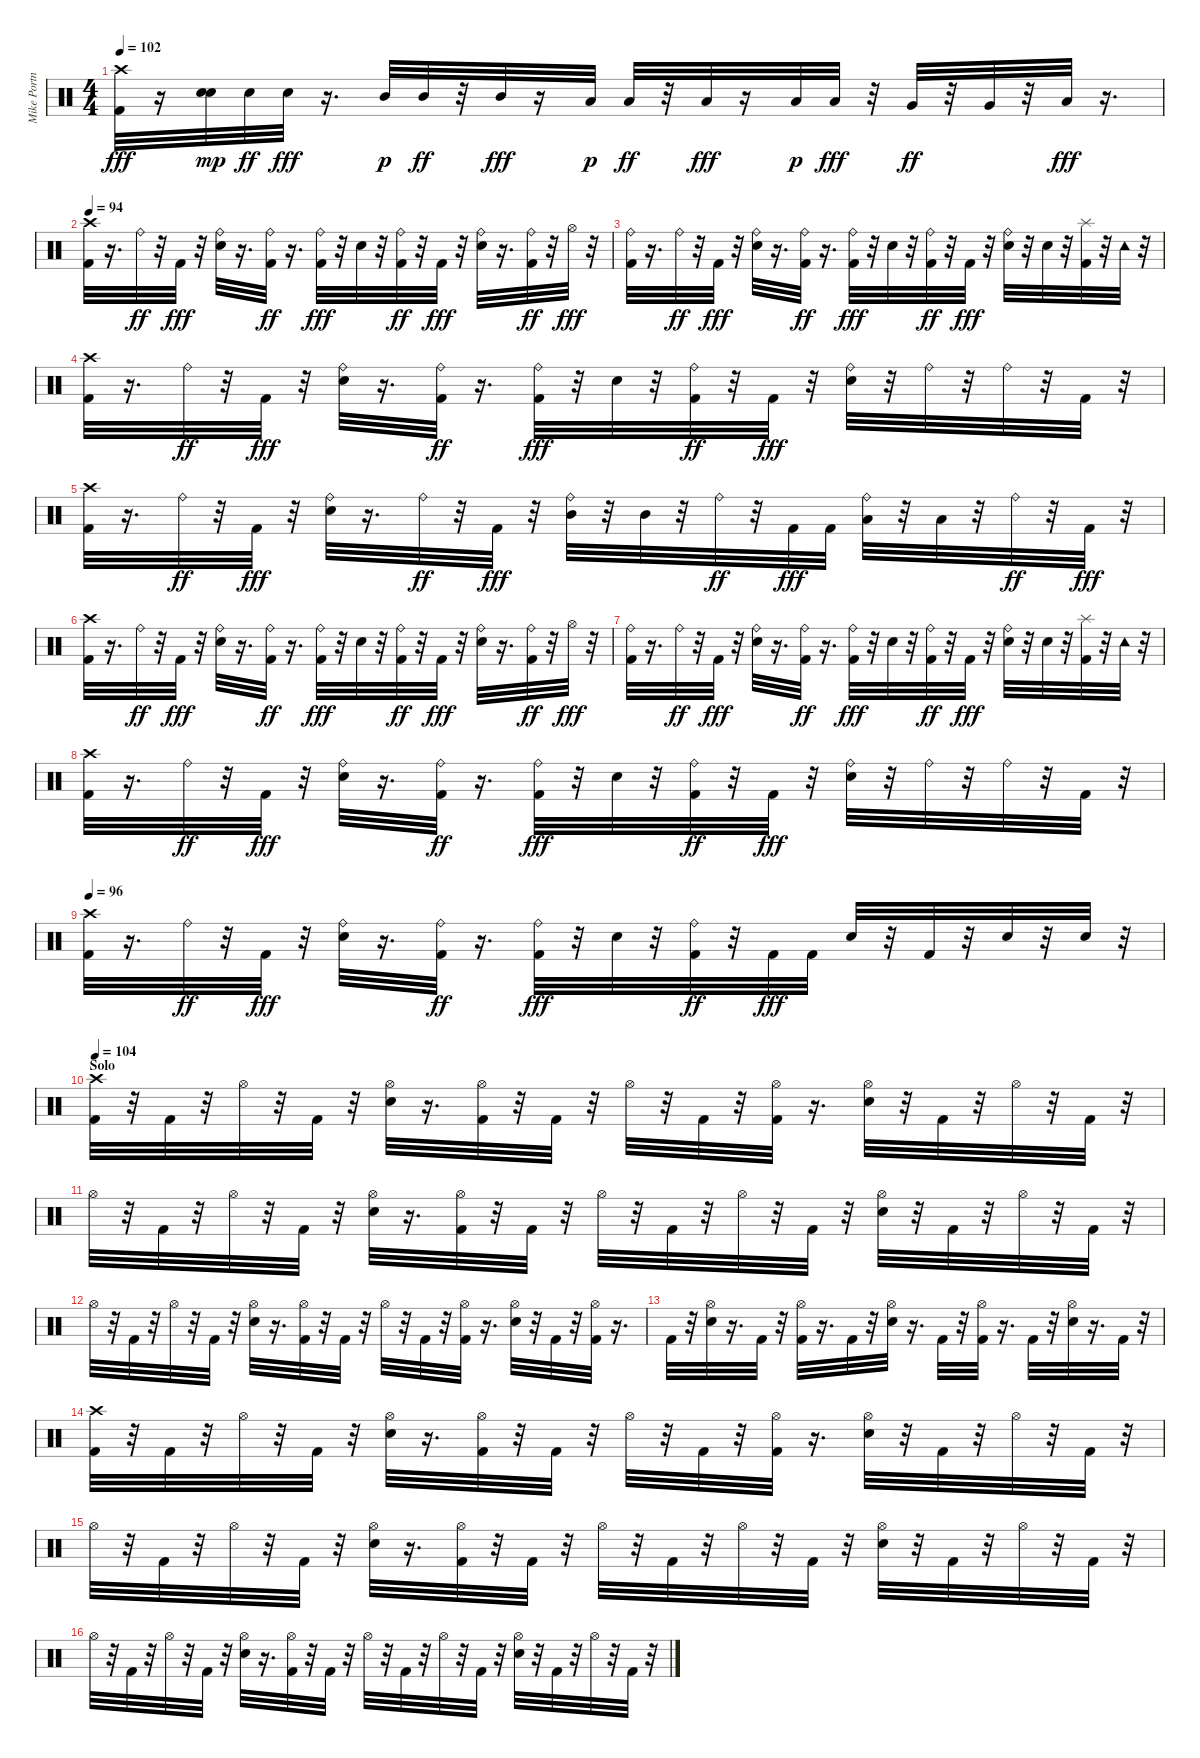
\track ("Mike Portnoy" "Mike Portn") {instrument percussion}
\staff {score}
\articulation defaults
\ts (4 4)
\tempo 102
\clef neutral
\ks c
("Kick (hit) 2" "Crash high (hit)").32{dy fff} r.16 ("Snare (hit) 2" "Snare (hit) 2").32{dy mp} "Snare (hit) 2".32{dy ff} "Snare (hit) 2".32{dy fff} r.16{d} "Mid Tom (hit)".32{dy p} "Mid Tom (hit)".32{dy ff} r.32 "Mid Tom (hit)".32{dy fff} r.16 "Low Tom (hit)".32{dy p} "Low Tom (hit)".32{dy ff} r.32 "Low Tom (hit)".32{dy fff} r.16 "Low Tom (hit)".32{dy p} "Low Tom (hit)".32{dy fff} r.32 "Very Low Tom (hit)".32{dy ff} r.32 "Very Low Tom (hit)".32 r.32 "Low Floor Tom (hit)".32{dy fff} r.16{d} |
\tempo 94
("Kick (hit) 2" "Crash high (hit)").32 r.16{d} "Ride (bell)".32{dy ff} r.32 "Kick (hit) 2".32{dy fff} r.32 ("Ride (bell)" "Snare (hit) 2").32 r.16{d} ("Kick (hit) 2" "Ride (bell)").32{dy ff} r.16{d} ("Kick (hit) 2" "Ride (bell)").32{dy fff} r.32 "Snare (hit) 2".32 r.32 ("Kick (hit) 2" "Ride (bell)").32{dy ff} r.32 "Kick (hit) 2".32{dy fff} r.32 ("Ride (bell)" "Snare (hit) 2").32 r.16{d} ("Kick (hit) 2" "Ride (bell)").32{dy ff} r.32 "Hi-Hat (open)".32{dy fff} r.32 |
("Kick (hit) 2" "Ride (bell)").32 r.16{d} "Ride (bell)".32{dy ff} r.32 "Kick (hit) 2".32{dy fff} r.32 ("Ride (bell)" "Snare (hit) 2").32 r.16{d} ("Kick (hit) 2" "Ride (bell)").32{dy ff} r.16{d} ("Kick (hit) 2" "Ride (bell)").32{dy fff} r.32 "Snare (hit) 2".32 r.32 ("Kick (hit) 2" "Ride (bell)").32{dy ff} r.32 "Kick (hit) 2".32{dy fff} r.32 ("Ride (bell)" "Snare (hit) 2").32 r.32 "Snare (hit) 2".32 r.32 ("Kick (hit) 2" "Splash (hit)").32 r.32 "Tambourine (hit)".32 r.32 |
("Kick (hit) 2" "Crash high (hit)").32 r.16{d} "Ride (bell)".32{dy ff} r.32 "Kick (hit) 2".32{dy fff} r.32 ("Ride (bell)" "Snare (hit) 2").32 r.16{d} ("Kick (hit) 2" "Ride (bell)").32{dy ff} r.16{d} ("Kick (hit) 2" "Ride (bell)").32{dy fff} r.32 "Snare (hit) 2".32 r.32 ("Kick (hit) 2" "Ride (bell)").32{dy ff} r.32 "Kick (hit) 2".32{dy fff} r.32 ("Ride (bell)" "Snare (hit) 2").32 r.32 "Ride (bell)".32 r.32 "Ride (bell)".32 r.32 "Kick (hit) 2".32 r.32 |
("Kick (hit) 2" "Crash high (hit)").32 r.16{d} "Ride (bell)".32{dy ff} r.32 "Kick (hit) 2".32{dy fff} r.32 ("Ride (bell)" "Snare (hit) 2").32 r.16{d} "Ride (bell)".32{dy ff} r.32 "Kick (hit) 2".32{dy fff} r.32 ("Ride (bell)" "Mid Tom (hit)").32 r.32 "Mid Tom (hit)".32 r.32 "Ride (bell)".32{dy ff} r.32 "Kick (hit) 2".32{dy fff} "Kick (hit) 2".32 ("Ride (bell)" "Low Tom (hit)").32 r.32 "Low Tom (hit)".32 r.32 "Ride (bell)".32{dy ff} r.32 "Kick (hit) 2".32{dy fff} r.32 |
("Kick (hit) 2" "Crash high (hit)").32 r.16{d} "Ride (bell)".32{dy ff} r.32 "Kick (hit) 2".32{dy fff} r.32 ("Ride (bell)" "Snare (hit) 2").32 r.16{d} ("Kick (hit) 2" "Ride (bell)").32{dy ff} r.16{d} ("Kick (hit) 2" "Ride (bell)").32{dy fff} r.32 "Snare (hit) 2".32 r.32 ("Kick (hit) 2" "Ride (bell)").32{dy ff} r.32 "Kick (hit) 2".32{dy fff} r.32 ("Ride (bell)" "Snare (hit) 2").32 r.16{d} ("Kick (hit) 2" "Ride (bell)").32{dy ff} r.32 "Hi-Hat (open)".32{dy fff} r.32 |
("Kick (hit) 2" "Ride (bell)").32 r.16{d} "Ride (bell)".32{dy ff} r.32 "Kick (hit) 2".32{dy fff} r.32 ("Ride (bell)" "Snare (hit) 2").32 r.16{d} ("Kick (hit) 2" "Ride (bell)").32{dy ff} r.16{d} ("Kick (hit) 2" "Ride (bell)").32{dy fff} r.32 "Snare (hit) 2".32 r.32 ("Kick (hit) 2" "Ride (bell)").32{dy ff} r.32 "Kick (hit) 2".32{dy fff} r.32 ("Ride (bell)" "Snare (hit) 2").32 r.32 "Snare (hit) 2".32 r.32 ("Kick (hit) 2" "Splash (hit)").32 r.32 "Tambourine (hit)".32 r.32 |
("Kick (hit) 2" "Crash high (hit)").32 r.16{d} "Ride (bell)".32{dy ff} r.32 "Kick (hit) 2".32{dy fff} r.32 ("Ride (bell)" "Snare (hit) 2").32 r.16{d} ("Kick (hit) 2" "Ride (bell)").32{dy ff} r.16{d} ("Kick (hit) 2" "Ride (bell)").32{dy fff} r.32 "Snare (hit) 2".32 r.32 ("Kick (hit) 2" "Ride (bell)").32{dy ff} r.32 "Kick (hit) 2".32{dy fff} r.32 ("Ride (bell)" "Snare (hit) 2").32 r.32 "Ride (bell)".32 r.32 "Ride (bell)".32 r.32 "Kick (hit) 2".32 r.32 |
\tempo 96
("Kick (hit) 2" "Crash high (hit)").32 r.16{d} "Ride (bell)".32{dy ff} r.32 "Kick (hit) 2".32{dy fff} r.32 ("Ride (bell)" "Snare (hit) 2").32 r.16{d} ("Kick (hit) 2" "Ride (bell)").32{dy ff} r.16{d} ("Kick (hit) 2" "Ride (bell)").32{dy fff} r.32 "Snare (hit) 2".32 r.32 ("Kick (hit) 2" "Ride (bell)").32{dy ff} r.32 "Kick (hit) 2".32{dy fff} "Kick (hit) 2".32 "Snare (hit) 2".32 r.32 "Kick (hit) 2".32 r.32 "Snare (hit) 2".32 r.32 "Snare (hit) 2".32 r.32 |
\section ("" "Solo")
\tempo 104
("Kick (hit) 2" "Crash high (hit)").32 r.32 "Kick (hit) 2".32 r.32 "Hi-Hat (open)".32 r.32 "Kick (hit) 2".32 r.32 ("Snare (hit) 2" "Hi-Hat (open)").32 r.16{d} ("Kick (hit) 2" "Hi-Hat (open)").32 r.32 "Kick (hit) 2".32 r.32 "Hi-Hat (open)".32 r.32 "Kick (hit) 2".32 r.32 ("Kick (hit) 2" "Hi-Hat (open)").32 r.16{d} ("Snare (hit) 2" "Hi-Hat (open)").32 r.32 "Kick (hit) 2".32 r.32 "Hi-Hat (open)".32 r.32 "Kick (hit) 2".32 r.32 |
"Hi-Hat (open)".32 r.32 "Kick (hit) 2".32 r.32 "Hi-Hat (open)".32 r.32 "Kick (hit) 2".32 r.32 ("Snare (hit) 2" "Hi-Hat (open)").32 r.16{d} ("Kick (hit) 2" "Hi-Hat (open)").32 r.32 "Kick (hit) 2".32 r.32 "Hi-Hat (open)".32 r.32 "Kick (hit) 2".32 r.32 "Hi-Hat (open)".32 r.32 "Kick (hit) 2".32 r.32 ("Snare (hit) 2" "Hi-Hat (open)").32 r.32 "Kick (hit) 2".32 r.32 "Hi-Hat (open)".32 r.32 "Kick (hit) 2".32 r.32 |
"Hi-Hat (open)".32 r.32 "Kick (hit) 2".32 r.32 "Hi-Hat (open)".32 r.32 "Kick (hit) 2".32 r.32 ("Snare (hit) 2" "Hi-Hat (open)").32 r.16{d} ("Kick (hit) 2" "Hi-Hat (open)").32 r.32 "Kick (hit) 2".32 r.32 "Hi-Hat (open)".32 r.32 "Kick (hit) 2".32 r.32 ("Kick (hit) 2" "Hi-Hat (open)").32 r.16{d} ("Snare (hit) 2" "Hi-Hat (open)").32 r.32 "Kick (hit) 2".32 r.32 ("Kick (hit) 2" "Hi-Hat (open)").32 r.16{d} |
"Kick (hit) 2".32 r.32 ("Snare (hit) 2" "Hi-Hat (open)").32 r.16{d} "Kick (hit) 2".32 r.32 ("Kick (hit) 2" "Hi-Hat (open)").32 r.16{d} "Kick (hit) 2".32 r.32 ("Snare (hit) 2" "Hi-Hat (open)").32 r.16{d} "Kick (hit) 2".32 r.32 ("Kick (hit) 2" "Hi-Hat (open)").32 r.16{d} "Kick (hit) 2".32 r.32 ("Snare (hit) 2" "Hi-Hat (open)").32 r.16{d} "Kick (hit) 2".32 r.32 |
("Kick (hit) 2" "Crash high (hit)").32 r.32 "Kick (hit) 2".32 r.32 "Hi-Hat (open)".32 r.32 "Kick (hit) 2".32 r.32 ("Snare (hit) 2" "Hi-Hat (open)").32 r.16{d} ("Kick (hit) 2" "Hi-Hat (open)").32 r.32 "Kick (hit) 2".32 r.32 "Hi-Hat (open)".32 r.32 "Kick (hit) 2".32 r.32 ("Kick (hit) 2" "Hi-Hat (open)").32 r.16{d} ("Snare (hit) 2" "Hi-Hat (open)").32 r.32 "Kick (hit) 2".32 r.32 "Hi-Hat (open)".32 r.32 "Kick (hit) 2".32 r.32 |
"Hi-Hat (open)".32 r.32 "Kick (hit) 2".32 r.32 "Hi-Hat (open)".32 r.32 "Kick (hit) 2".32 r.32 ("Snare (hit) 2" "Hi-Hat (open)").32 r.16{d} ("Kick (hit) 2" "Hi-Hat (open)").32 r.32 "Kick (hit) 2".32 r.32 "Hi-Hat (open)".32 r.32 "Kick (hit) 2".32 r.32 "Hi-Hat (open)".32 r.32 "Kick (hit) 2".32 r.32 ("Snare (hit) 2" "Hi-Hat (open)").32 r.32 "Kick (hit) 2".32 r.32 "Hi-Hat (open)".32 r.32 "Kick (hit) 2".32 r.32 |
"Hi-Hat (open)".32 r.32 "Kick (hit) 2".32 r.32 "Hi-Hat (open)".32 r.32 "Kick (hit) 2".32 r.32 ("Snare (hit) 2" "Hi-Hat (open)").32 r.16{d} ("Kick (hit) 2" "Hi-Hat (open)").32 r.32 "Kick (hit) 2".32 r.32 "Hi-Hat (open)".32 r.32 "Kick (hit) 2".32 r.32 "Hi-Hat (open)".32 r.32 "Kick (hit) 2".32 r.32 ("Snare (hit) 2" "Hi-Hat (open)").32 r.32 "Kick (hit) 2".32 r.32 "Hi-Hat (open)".32 r.32 "Kick (hit) 2".32 r.32
